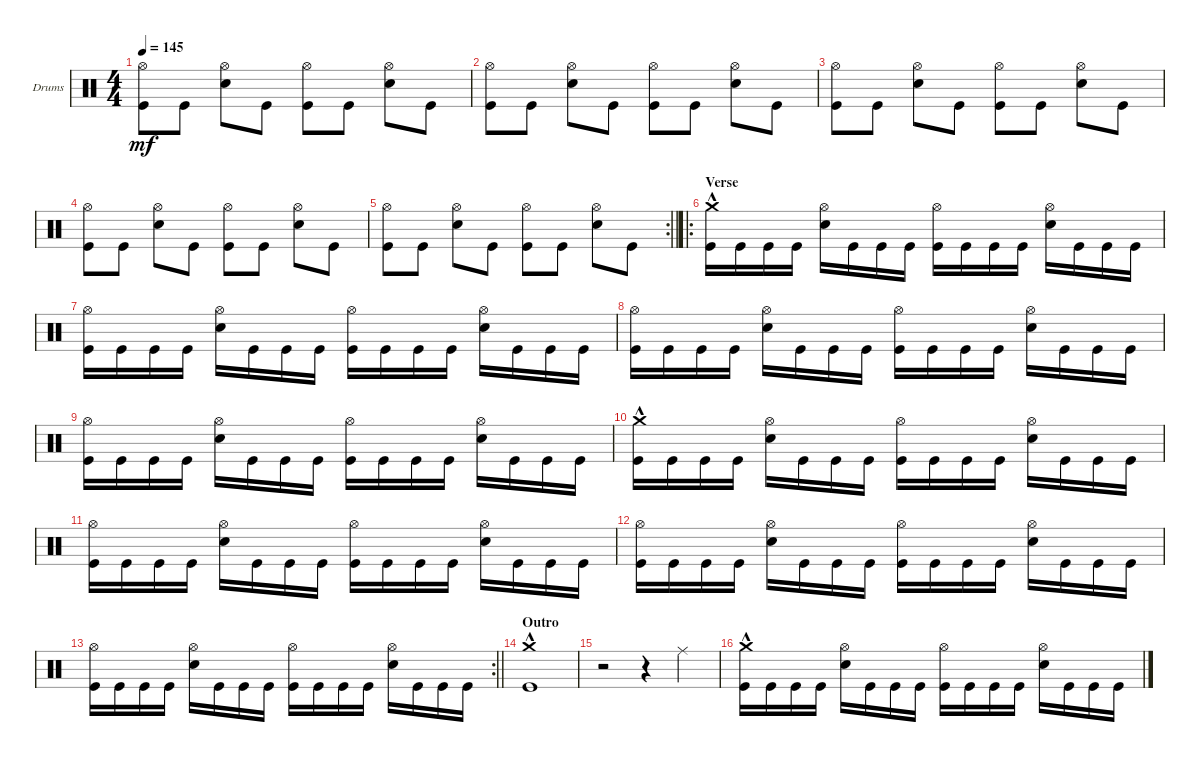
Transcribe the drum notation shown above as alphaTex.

\defaultSystemsLayout 4
\bracketExtendMode groupsimilarinstruments
\firstSystemTrackNameOrientation horizontal
\otherSystemsTrackNameOrientation horizontal
\track ("Drumkit" "Drums") {instrument percussion}
\staff {score}
\articulation defaults
\ts (4 4)
\tempo 145
\clef neutral
\ks c
("Kick (hit)" "Hi-Hat (open)").8{dy mf} "Kick (hit)".8 ("Snare (hit) 2" "Hi-Hat (open)").8 "Kick (hit)".8 ("Kick (hit)" "Hi-Hat (open)").8 "Kick (hit)".8 ("Snare (hit) 2" "Hi-Hat (open)").8 "Kick (hit)".8 |
("Kick (hit)" "Hi-Hat (open)").8 "Kick (hit)".8 ("Snare (hit) 2" "Hi-Hat (open)").8 "Kick (hit)".8 ("Kick (hit)" "Hi-Hat (open)").8 "Kick (hit)".8 ("Snare (hit) 2" "Hi-Hat (open)").8 "Kick (hit)".8 |
("Kick (hit)" "Hi-Hat (open)").8 "Kick (hit)".8 ("Snare (hit) 2" "Hi-Hat (open)").8 "Kick (hit)".8 ("Kick (hit)" "Hi-Hat (open)").8 "Kick (hit)".8 ("Snare (hit) 2" "Hi-Hat (open)").8 "Kick (hit)".8 |
("Kick (hit)" "Hi-Hat (open)").8 "Kick (hit)".8 ("Snare (hit) 2" "Hi-Hat (open)").8 "Kick (hit)".8 ("Kick (hit)" "Hi-Hat (open)").8 "Kick (hit)".8 ("Snare (hit) 2" "Hi-Hat (open)").8 "Kick (hit)".8 |
\rc 2
\barLineRight lightlight
("Kick (hit)" "Hi-Hat (open)").8 "Kick (hit)".8 ("Snare (hit) 2" "Hi-Hat (open)").8 "Kick (hit)".8 ("Kick (hit)" "Hi-Hat (open)").8 "Kick (hit)".8 ("Snare (hit) 2" "Hi-Hat (open)").8 "Kick (hit)".8 |
\ro
\section ("" "Verse")
("Kick (hit)" "Crash medium (hit)"{hac}).16 "Kick (hit)".16 "Kick (hit)".16 "Kick (hit)".16 ("Snare (hit) 2" "Hi-Hat (open)").16 "Kick (hit)".16 "Kick (hit)".16 "Kick (hit)".16 ("Kick (hit)" "Hi-Hat (open)").16 "Kick (hit)".16 "Kick (hit)".16 "Kick (hit)".16 ("Snare (hit) 2" "Hi-Hat (open)").16 "Kick (hit)".16 "Kick (hit)".16 "Kick (hit)".16 |
("Kick (hit)" "Hi-Hat (open)").16 "Kick (hit)".16 "Kick (hit)".16 "Kick (hit)".16 ("Snare (hit) 2" "Hi-Hat (open)").16 "Kick (hit)".16 "Kick (hit)".16 "Kick (hit)".16 ("Kick (hit)" "Hi-Hat (open)").16 "Kick (hit)".16 "Kick (hit)".16 "Kick (hit)".16 ("Snare (hit) 2" "Hi-Hat (open)").16 "Kick (hit)".16 "Kick (hit)".16 "Kick (hit)".16 |
("Kick (hit)" "Hi-Hat (open)").16 "Kick (hit)".16 "Kick (hit)".16 "Kick (hit)".16 ("Snare (hit) 2" "Hi-Hat (open)").16 "Kick (hit)".16 "Kick (hit)".16 "Kick (hit)".16 ("Kick (hit)" "Hi-Hat (open)").16 "Kick (hit)".16 "Kick (hit)".16 "Kick (hit)".16 ("Snare (hit) 2" "Hi-Hat (open)").16 "Kick (hit)".16 "Kick (hit)".16 "Kick (hit)".16 |
("Kick (hit)" "Hi-Hat (open)").16 "Kick (hit)".16 "Kick (hit)".16 "Kick (hit)".16 ("Snare (hit) 2" "Hi-Hat (open)").16 "Kick (hit)".16 "Kick (hit)".16 "Kick (hit)".16 ("Kick (hit)" "Hi-Hat (open)").16 "Kick (hit)".16 "Kick (hit)".16 "Kick (hit)".16 ("Snare (hit) 2" "Hi-Hat (open)").16 "Kick (hit)".16 "Kick (hit)".16 "Kick (hit)".16 |
("Kick (hit)" "Crash medium (hit)"{hac}).16 "Kick (hit)".16 "Kick (hit)".16 "Kick (hit)".16 ("Snare (hit) 2" "Hi-Hat (open)").16 "Kick (hit)".16 "Kick (hit)".16 "Kick (hit)".16 ("Kick (hit)" "Hi-Hat (open)").16 "Kick (hit)".16 "Kick (hit)".16 "Kick (hit)".16 ("Snare (hit) 2" "Hi-Hat (open)").16 "Kick (hit)".16 "Kick (hit)".16 "Kick (hit)".16 |
("Kick (hit)" "Hi-Hat (open)").16 "Kick (hit)".16 "Kick (hit)".16 "Kick (hit)".16 ("Snare (hit) 2" "Hi-Hat (open)").16 "Kick (hit)".16 "Kick (hit)".16 "Kick (hit)".16 ("Kick (hit)" "Hi-Hat (open)").16 "Kick (hit)".16 "Kick (hit)".16 "Kick (hit)".16 ("Snare (hit) 2" "Hi-Hat (open)").16 "Kick (hit)".16 "Kick (hit)".16 "Kick (hit)".16 |
("Kick (hit)" "Hi-Hat (open)").16 "Kick (hit)".16 "Kick (hit)".16 "Kick (hit)".16 ("Snare (hit) 2" "Hi-Hat (open)").16 "Kick (hit)".16 "Kick (hit)".16 "Kick (hit)".16 ("Kick (hit)" "Hi-Hat (open)").16 "Kick (hit)".16 "Kick (hit)".16 "Kick (hit)".16 ("Snare (hit) 2" "Hi-Hat (open)").16 "Kick (hit)".16 "Kick (hit)".16 "Kick (hit)".16 |
\rc 2
\barLineRight lightlight
("Kick (hit)" "Hi-Hat (open)").16 "Kick (hit)".16 "Kick (hit)".16 "Kick (hit)".16 ("Snare (hit) 2" "Hi-Hat (open)").16 "Kick (hit)".16 "Kick (hit)".16 "Kick (hit)".16 ("Kick (hit)" "Hi-Hat (open)").16 "Kick (hit)".16 "Kick (hit)".16 "Kick (hit)".16 ("Snare (hit) 2" "Hi-Hat (open)").16 "Kick (hit)".16 "Kick (hit)".16 "Kick (hit)".16 |
\section ("" "Outro")
("Kick (hit)" "Crash medium (hit)"{hac}).1 |
r.2 r.4 "Ride (middle)".4 |
("Kick (hit)" "Crash medium (hit)"{hac}).16 "Kick (hit)".16 "Kick (hit)".16 "Kick (hit)".16 ("Snare (hit) 2" "Hi-Hat (open)").16 "Kick (hit)".16 "Kick (hit)".16 "Kick (hit)".16 ("Kick (hit)" "Hi-Hat (open)").16 "Kick (hit)".16 "Kick (hit)".16 "Kick (hit)".16 ("Snare (hit) 2" "Hi-Hat (open)").16 "Kick (hit)".16 "Kick (hit)".16 "Kick (hit)".16
